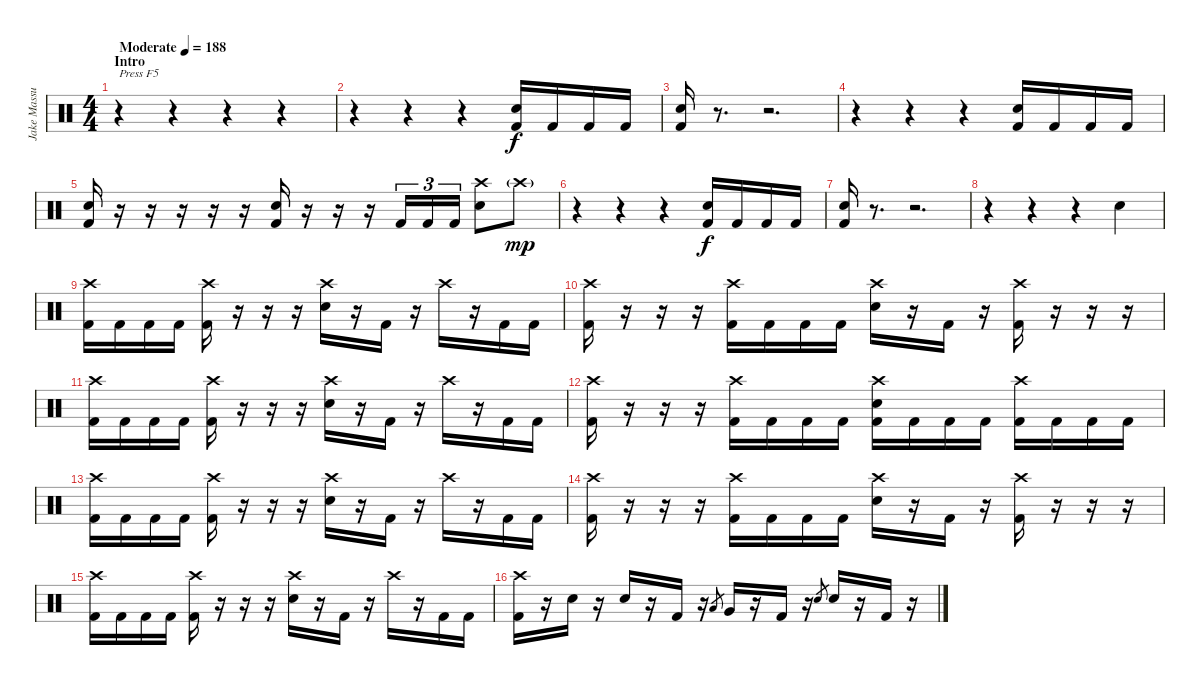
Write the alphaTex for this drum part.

\track ("Jake Massucco" "Jake Massu") {instrument percussion}
\staff {score}
\articulation defaults
\ts (4 4)
\section ("" "Intro")
\tempo (188 "Moderate")
\clef neutral
\ks c
r.4{txt "Press F5" dy f} r.4 r.4 r.4 |
r.4 r.4 r.4 ("Electric Snare (hit)" "Kick (hit) 2").16 "Kick (hit) 2".16 "Kick (hit) 2".16 "Kick (hit) 2".16 |
("Electric Snare (hit)" "Kick (hit) 2").16 r.8{d} r.2{d} |
r.4 r.4 r.4 ("Electric Snare (hit)" "Kick (hit) 2").16 "Kick (hit) 2".16 "Kick (hit) 2".16 "Kick (hit) 2".16 |
("Electric Snare (hit)" "Kick (hit) 2").16 r.16 r.16 r.16 r.16 r.16 ("Electric Snare (hit)" "Kick (hit) 2").16 r.16 r.16 r.16 "Kick (hit) 2".16{tu (3 2)} "Kick (hit) 2".16{tu (3 2)} "Kick (hit) 2".16{tu (3 2)} ("Crash high (hit)" "Electric Snare (hit)").8 "Crash high (hit)"{g}.8{dy mp volume 0} |
r.4 r.4 r.4 ("Electric Snare (hit)" "Kick (hit) 2").16{dy f volume 13} "Kick (hit) 2".16 "Kick (hit) 2".16 "Kick (hit) 2".16 |
("Electric Snare (hit)" "Kick (hit) 2").16 r.8{d} r.2{d} |
r.4 r.4 r.4 "Electric Snare (hit)".4 |
("Crash high (hit)" "Kick (hit) 2").16 "Kick (hit) 2".16 "Kick (hit) 2".16 "Kick (hit) 2".16 ("Crash high (hit)" "Kick (hit) 2").16 r.16 r.16 r.16 ("Crash high (hit)" "Electric Snare (hit)").16 r.16 "Kick (hit) 2".16 r.16 "Crash high (hit)".16 r.16 "Kick (hit) 2".16 "Kick (hit) 2".16 |
("Crash high (hit)" "Kick (hit) 2").16 r.16 r.16 r.16 ("Crash high (hit)" "Kick (hit) 2").16 "Kick (hit) 2".16 "Kick (hit) 2".16 "Kick (hit) 2".16 ("Crash high (hit)" "Electric Snare (hit)").16 r.16 "Kick (hit) 2".16 r.16 ("Crash high (hit)" "Kick (hit) 2").16 r.16 r.16 r.16 |
("Crash high (hit)" "Kick (hit) 2").16 "Kick (hit) 2".16 "Kick (hit) 2".16 "Kick (hit) 2".16 ("Crash high (hit)" "Kick (hit) 2").16 r.16 r.16 r.16 ("Crash high (hit)" "Electric Snare (hit)").16 r.16 "Kick (hit) 2".16 r.16 "Crash high (hit)".16 r.16 "Kick (hit) 2".16 "Kick (hit) 2".16 |
("Crash high (hit)" "Kick (hit) 2").16 r.16 r.16 r.16 ("Crash high (hit)" "Kick (hit) 2").16 "Kick (hit) 2".16 "Kick (hit) 2".16 "Kick (hit) 2".16 ("Crash high (hit)" "Electric Snare (hit)" "Kick (hit) 2").16 "Kick (hit) 2".16 "Kick (hit) 2".16 "Kick (hit) 2".16 ("Crash high (hit)" "Kick (hit) 2").16 "Kick (hit) 2".16 "Kick (hit) 2".16 "Kick (hit) 2".16 |
("Crash high (hit)" "Kick (hit) 2").16 "Kick (hit) 2".16 "Kick (hit) 2".16 "Kick (hit) 2".16 ("Crash high (hit)" "Kick (hit) 2").16 r.16 r.16 r.16 ("Crash high (hit)" "Electric Snare (hit)").16 r.16 "Kick (hit) 2".16 r.16 "Crash high (hit)".16 r.16 "Kick (hit) 2".16 "Kick (hit) 2".16 |
("Crash high (hit)" "Kick (hit) 2").16 r.16 r.16 r.16 ("Crash high (hit)" "Kick (hit) 2").16 "Kick (hit) 2".16 "Kick (hit) 2".16 "Kick (hit) 2".16 ("Crash high (hit)" "Electric Snare (hit)").16 r.16 "Kick (hit) 2".16 r.16 ("Crash high (hit)" "Kick (hit) 2").16 r.16 r.16 r.16 |
("Crash high (hit)" "Kick (hit) 2").16 "Kick (hit) 2".16 "Kick (hit) 2".16 "Kick (hit) 2".16 ("Crash high (hit)" "Kick (hit) 2").16 r.16 r.16 r.16 ("Crash high (hit)" "Electric Snare (hit)").16 r.16 "Kick (hit) 2".16 r.16 "Crash high (hit)".16 r.16 "Kick (hit) 2".16 "Kick (hit) 2".16 |
("Crash high (hit)" "Kick (hit) 2").16 r.16 "Electric Snare (hit)".16 r.16 "Electric Snare (hit)".16 r.16 "Kick (hit) 2".16 r.16 "Low Floor Tom (hit)".8{gr} "Very Low Tom (hit)".16 r.16 "Kick (hit) 2".16 r.16 "Electric Snare (hit)".8{gr} "Electric Snare (hit)".16 r.16 "Kick (hit) 2".16 r.16
